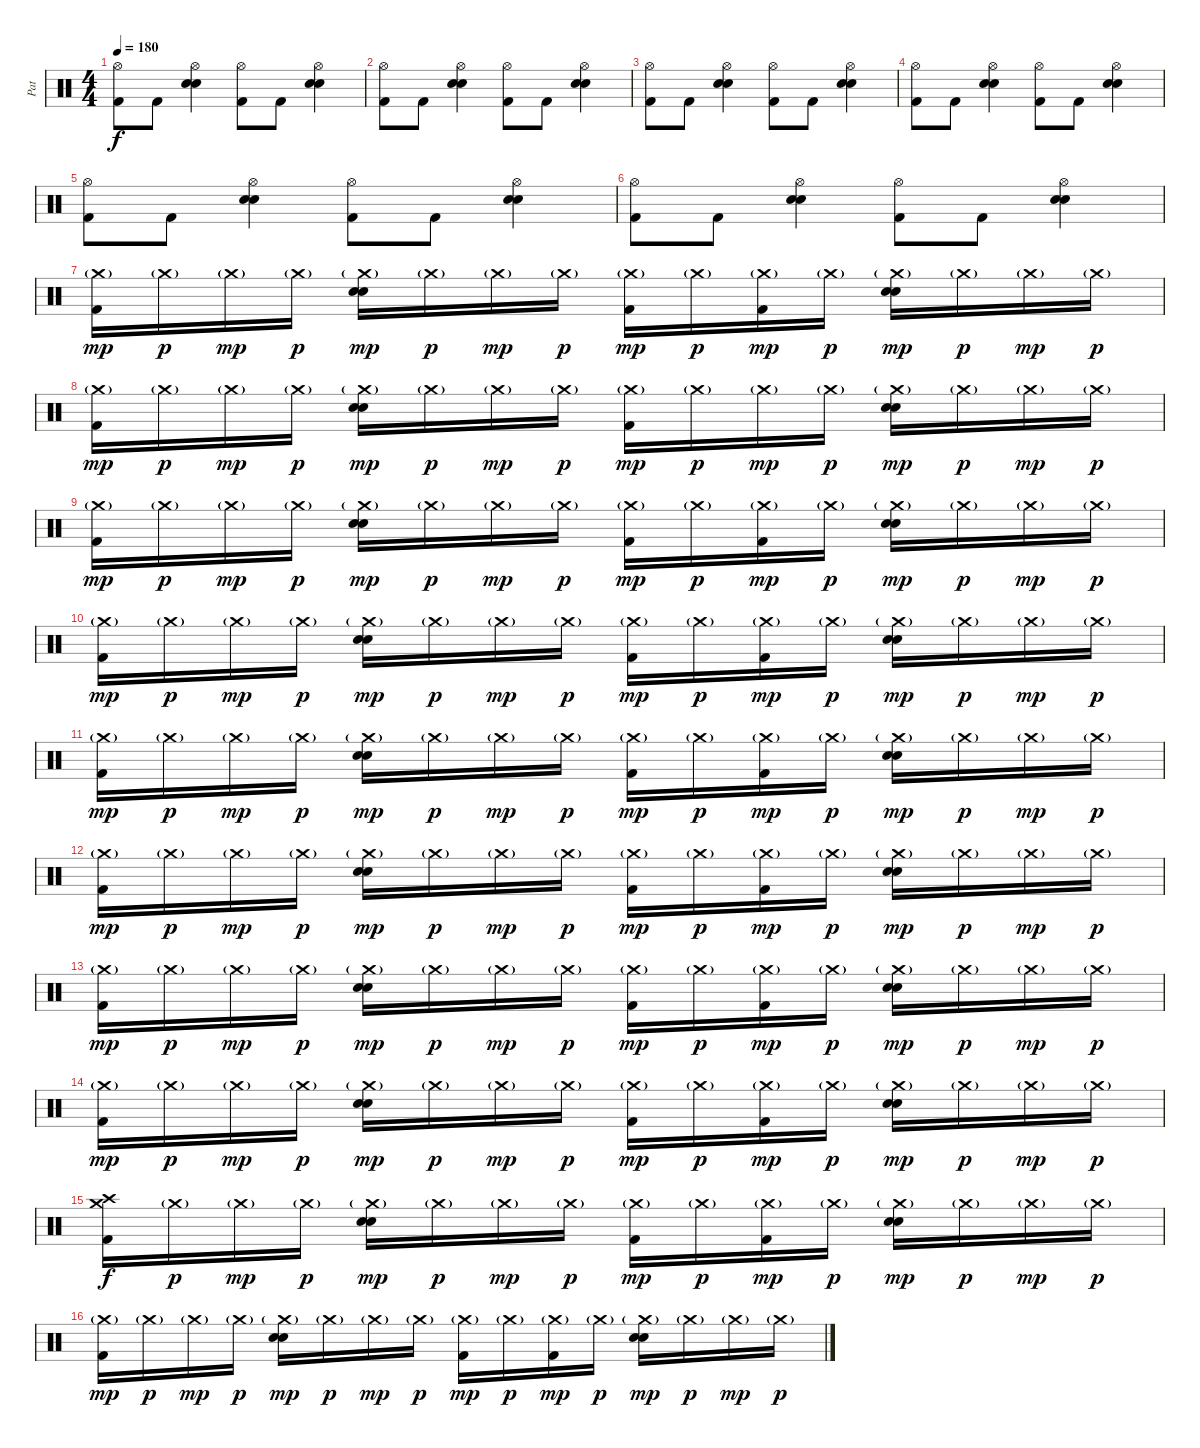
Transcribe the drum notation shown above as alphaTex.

\track ("Pat" "Pat") {instrument percussion}
\staff {score}
\articulation defaults
\ts (4 4)
\tempo 180
\clef neutral
\ks c
("Hi-Hat (open)" "Kick (hit) 2").8{dy f} "Kick (hit) 2".8 ("Hi-Hat (open)" "Snare (hit) 2" "Electric Snare (hit)").4 ("Hi-Hat (open)" "Kick (hit) 2").8 "Kick (hit) 2".8 ("Hi-Hat (open)" "Snare (hit) 2" "Electric Snare (hit)").4 |
("Hi-Hat (open)" "Kick (hit) 2").8 "Kick (hit) 2".8 ("Hi-Hat (open)" "Snare (hit) 2" "Electric Snare (hit)").4 ("Hi-Hat (open)" "Kick (hit) 2").8 "Kick (hit) 2".8 ("Hi-Hat (open)" "Snare (hit) 2" "Electric Snare (hit)").4 |
("Hi-Hat (open)" "Kick (hit) 2").8 "Kick (hit) 2".8 ("Hi-Hat (open)" "Snare (hit) 2" "Electric Snare (hit)").4 ("Hi-Hat (open)" "Kick (hit) 2").8 "Kick (hit) 2".8 ("Hi-Hat (open)" "Snare (hit) 2" "Electric Snare (hit)").4 |
("Hi-Hat (open)" "Kick (hit) 2").8 "Kick (hit) 2".8 ("Hi-Hat (open)" "Snare (hit) 2" "Electric Snare (hit)").4 ("Hi-Hat (open)" "Kick (hit) 2").8 "Kick (hit) 2".8 ("Hi-Hat (open)" "Snare (hit) 2" "Electric Snare (hit)").4 |
("Hi-Hat (open)" "Kick (hit) 2").8 "Kick (hit) 2".8 ("Hi-Hat (open)" "Snare (hit) 2" "Electric Snare (hit)").4 ("Hi-Hat (open)" "Kick (hit) 2").8 "Kick (hit) 2".8 ("Hi-Hat (open)" "Snare (hit) 2" "Electric Snare (hit)").4 |
("Hi-Hat (open)" "Kick (hit) 2").8 "Kick (hit) 2".8 ("Hi-Hat (open)" "Snare (hit) 2" "Electric Snare (hit)").4 ("Hi-Hat (open)" "Kick (hit) 2").8 "Kick (hit) 2".8 ("Hi-Hat (open)" "Snare (hit) 2" "Electric Snare (hit)").4 |
("Crash medium (hit)"{g} "Kick (hit) 2").16{dy mp} "Crash medium (hit)"{g}.16{dy p} "Crash medium (hit)"{g}.16{dy mp} "Crash medium (hit)"{g}.16{dy p} ("Crash medium (hit)"{g} "Snare (hit) 2" "Electric Snare (hit)").16{dy mp} "Crash medium (hit)"{g}.16{dy p} "Crash medium (hit)"{g}.16{dy mp} "Crash medium (hit)"{g}.16{dy p} ("Crash medium (hit)"{g} "Kick (hit) 2").16{dy mp} "Crash medium (hit)"{g}.16{dy p} ("Crash medium (hit)"{g} "Kick (hit) 2").16{dy mp} "Crash medium (hit)"{g}.16{dy p} ("Crash medium (hit)"{g} "Snare (hit) 2" "Electric Snare (hit)").16{dy mp} "Crash medium (hit)"{g}.16{dy p} "Crash medium (hit)"{g}.16{dy mp} "Crash medium (hit)"{g}.16{dy p} |
("Crash medium (hit)"{g} "Kick (hit) 2").16{dy mp} "Crash medium (hit)"{g}.16{dy p} "Crash medium (hit)"{g}.16{dy mp} "Crash medium (hit)"{g}.16{dy p} ("Crash medium (hit)"{g} "Snare (hit) 2" "Electric Snare (hit)").16{dy mp} "Crash medium (hit)"{g}.16{dy p} "Crash medium (hit)"{g}.16{dy mp} "Crash medium (hit)"{g}.16{dy p} ("Crash medium (hit)"{g} "Kick (hit) 2").16{dy mp} "Crash medium (hit)"{g}.16{dy p} "Crash medium (hit)"{g}.16{dy mp} "Crash medium (hit)"{g}.16{dy p} ("Crash medium (hit)"{g} "Snare (hit) 2" "Electric Snare (hit)").16{dy mp} "Crash medium (hit)"{g}.16{dy p} "Crash medium (hit)"{g}.16{dy mp} "Crash medium (hit)"{g}.16{dy p} |
("Crash medium (hit)"{g} "Kick (hit) 2").16{dy mp} "Crash medium (hit)"{g}.16{dy p} "Crash medium (hit)"{g}.16{dy mp} "Crash medium (hit)"{g}.16{dy p} ("Crash medium (hit)"{g} "Snare (hit) 2" "Electric Snare (hit)").16{dy mp} "Crash medium (hit)"{g}.16{dy p} "Crash medium (hit)"{g}.16{dy mp} "Crash medium (hit)"{g}.16{dy p} ("Crash medium (hit)"{g} "Kick (hit) 2").16{dy mp} "Crash medium (hit)"{g}.16{dy p} ("Crash medium (hit)"{g} "Kick (hit) 2").16{dy mp} "Crash medium (hit)"{g}.16{dy p} ("Crash medium (hit)"{g} "Snare (hit) 2" "Electric Snare (hit)").16{dy mp} "Crash medium (hit)"{g}.16{dy p} "Crash medium (hit)"{g}.16{dy mp} "Crash medium (hit)"{g}.16{dy p} |
("Crash medium (hit)"{g} "Kick (hit) 2").16{dy mp} "Crash medium (hit)"{g}.16{dy p} "Crash medium (hit)"{g}.16{dy mp} "Crash medium (hit)"{g}.16{dy p} ("Crash medium (hit)"{g} "Snare (hit) 2" "Electric Snare (hit)").16{dy mp} "Crash medium (hit)"{g}.16{dy p} "Crash medium (hit)"{g}.16{dy mp} "Crash medium (hit)"{g}.16{dy p} ("Crash medium (hit)"{g} "Kick (hit) 2").16{dy mp} "Crash medium (hit)"{g}.16{dy p} ("Crash medium (hit)"{g} "Kick (hit) 2").16{dy mp} "Crash medium (hit)"{g}.16{dy p} ("Crash medium (hit)"{g} "Snare (hit) 2" "Electric Snare (hit)").16{dy mp} "Crash medium (hit)"{g}.16{dy p} "Crash medium (hit)"{g}.16{dy mp} "Crash medium (hit)"{g}.16{dy p} |
("Crash medium (hit)"{g} "Kick (hit) 2").16{dy mp} "Crash medium (hit)"{g}.16{dy p} "Crash medium (hit)"{g}.16{dy mp} "Crash medium (hit)"{g}.16{dy p} ("Crash medium (hit)"{g} "Snare (hit) 2" "Electric Snare (hit)").16{dy mp} "Crash medium (hit)"{g}.16{dy p} "Crash medium (hit)"{g}.16{dy mp} "Crash medium (hit)"{g}.16{dy p} ("Crash medium (hit)"{g} "Kick (hit) 2").16{dy mp} "Crash medium (hit)"{g}.16{dy p} ("Crash medium (hit)"{g} "Kick (hit) 2").16{dy mp} "Crash medium (hit)"{g}.16{dy p} ("Crash medium (hit)"{g} "Snare (hit) 2" "Electric Snare (hit)").16{dy mp} "Crash medium (hit)"{g}.16{dy p} "Crash medium (hit)"{g}.16{dy mp} "Crash medium (hit)"{g}.16{dy p} |
("Crash medium (hit)"{g} "Kick (hit) 2").16{dy mp} "Crash medium (hit)"{g}.16{dy p} "Crash medium (hit)"{g}.16{dy mp} "Crash medium (hit)"{g}.16{dy p} ("Crash medium (hit)"{g} "Snare (hit) 2" "Electric Snare (hit)").16{dy mp} "Crash medium (hit)"{g}.16{dy p} "Crash medium (hit)"{g}.16{dy mp} "Crash medium (hit)"{g}.16{dy p} ("Crash medium (hit)"{g} "Kick (hit) 2").16{dy mp} "Crash medium (hit)"{g}.16{dy p} ("Crash medium (hit)"{g} "Kick (hit) 2").16{dy mp} "Crash medium (hit)"{g}.16{dy p} ("Crash medium (hit)"{g} "Snare (hit) 2" "Electric Snare (hit)").16{dy mp} "Crash medium (hit)"{g}.16{dy p} "Crash medium (hit)"{g}.16{dy mp} "Crash medium (hit)"{g}.16{dy p} |
("Crash medium (hit)"{g} "Kick (hit) 2").16{dy mp} "Crash medium (hit)"{g}.16{dy p} "Crash medium (hit)"{g}.16{dy mp} "Crash medium (hit)"{g}.16{dy p} ("Crash medium (hit)"{g} "Snare (hit) 2" "Electric Snare (hit)").16{dy mp} "Crash medium (hit)"{g}.16{dy p} "Crash medium (hit)"{g}.16{dy mp} "Crash medium (hit)"{g}.16{dy p} ("Crash medium (hit)"{g} "Kick (hit) 2").16{dy mp} "Crash medium (hit)"{g}.16{dy p} ("Crash medium (hit)"{g} "Kick (hit) 2").16{dy mp} "Crash medium (hit)"{g}.16{dy p} ("Crash medium (hit)"{g} "Snare (hit) 2" "Electric Snare (hit)").16{dy mp} "Crash medium (hit)"{g}.16{dy p} "Crash medium (hit)"{g}.16{dy mp} "Crash medium (hit)"{g}.16{dy p} |
("Crash medium (hit)"{g} "Kick (hit) 2").16{dy mp} "Crash medium (hit)"{g}.16{dy p} "Crash medium (hit)"{g}.16{dy mp} "Crash medium (hit)"{g}.16{dy p} ("Crash medium (hit)"{g} "Snare (hit) 2" "Electric Snare (hit)").16{dy mp} "Crash medium (hit)"{g}.16{dy p} "Crash medium (hit)"{g}.16{dy mp} "Crash medium (hit)"{g}.16{dy p} ("Crash medium (hit)"{g} "Kick (hit) 2").16{dy mp} "Crash medium (hit)"{g}.16{dy p} ("Crash medium (hit)"{g} "Kick (hit) 2").16{dy mp} "Crash medium (hit)"{g}.16{dy p} ("Crash medium (hit)"{g} "Snare (hit) 2" "Electric Snare (hit)").16{dy mp} "Crash medium (hit)"{g}.16{dy p} "Crash medium (hit)"{g}.16{dy mp} "Crash medium (hit)"{g}.16{dy p} |
("Crash medium (hit)" "Crash high (hit)" "Kick (hit) 2").16{dy f} "Crash medium (hit)"{g}.16{dy p} "Crash medium (hit)"{g}.16{dy mp} "Crash medium (hit)"{g}.16{dy p} ("Crash medium (hit)"{g} "Snare (hit) 2" "Electric Snare (hit)").16{dy mp} "Crash medium (hit)"{g}.16{dy p} "Crash medium (hit)"{g}.16{dy mp} "Crash medium (hit)"{g}.16{dy p} ("Crash medium (hit)"{g} "Kick (hit) 2").16{dy mp} "Crash medium (hit)"{g}.16{dy p} ("Crash medium (hit)"{g} "Kick (hit) 2").16{dy mp} "Crash medium (hit)"{g}.16{dy p} ("Crash medium (hit)"{g} "Snare (hit) 2" "Electric Snare (hit)").16{dy mp} "Crash medium (hit)"{g}.16{dy p} "Crash medium (hit)"{g}.16{dy mp} "Crash medium (hit)"{g}.16{dy p} |
("Crash medium (hit)"{g} "Kick (hit) 2").16{dy mp} "Crash medium (hit)"{g}.16{dy p} "Crash medium (hit)"{g}.16{dy mp} "Crash medium (hit)"{g}.16{dy p} ("Crash medium (hit)"{g} "Snare (hit) 2" "Electric Snare (hit)").16{dy mp} "Crash medium (hit)"{g}.16{dy p} "Crash medium (hit)"{g}.16{dy mp} "Crash medium (hit)"{g}.16{dy p} ("Crash medium (hit)"{g} "Kick (hit) 2").16{dy mp} "Crash medium (hit)"{g}.16{dy p} ("Crash medium (hit)"{g} "Kick (hit) 2").16{dy mp} "Crash medium (hit)"{g}.16{dy p} ("Crash medium (hit)"{g} "Snare (hit) 2" "Electric Snare (hit)").16{dy mp} "Crash medium (hit)"{g}.16{dy p} "Crash medium (hit)"{g}.16{dy mp} "Crash medium (hit)"{g}.16{dy p}
